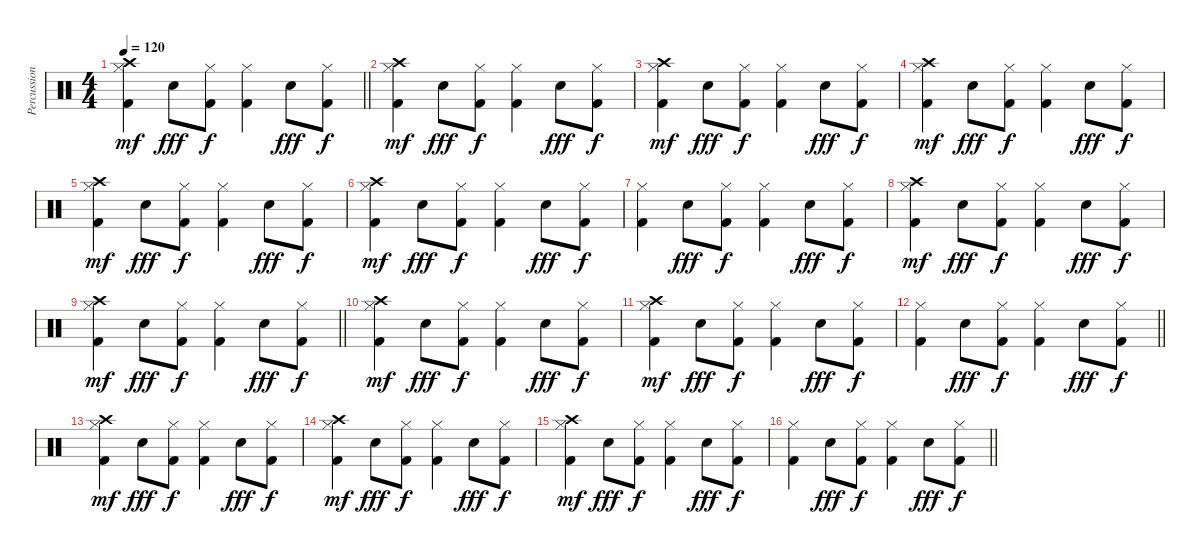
\track ("Percussion" "Percussion") {instrument percussion}
\staff {score}
\articulation defaults
\ts (4 4)
\tempo 120
\clef neutral
\barLineRight lightlight
\ks c
("Kick (hit) 2" "Hi-Hat (closed)" "Crash high (hit)").4{dy mf} "Snare (hit) 2".8{dy fff} ("Kick (hit) 2" "Hi-Hat (closed)").8{dy f} ("Kick (hit) 2" "Hi-Hat (closed)").4 "Snare (hit) 2".8{dy fff} ("Kick (hit) 2" "Hi-Hat (closed)").8{dy f} |
("Kick (hit) 2" "Hi-Hat (closed)" "Crash high (hit)").4{dy mf} "Snare (hit) 2".8{dy fff} ("Kick (hit) 2" "Hi-Hat (closed)").8{dy f} ("Kick (hit) 2" "Hi-Hat (closed)").4 "Snare (hit) 2".8{dy fff} ("Kick (hit) 2" "Hi-Hat (closed)").8{dy f} |
("Kick (hit) 2" "Hi-Hat (closed)" "Crash high (hit)").4{dy mf} "Snare (hit) 2".8{dy fff} ("Kick (hit) 2" "Hi-Hat (closed)").8{dy f} ("Kick (hit) 2" "Hi-Hat (closed)").4 "Snare (hit) 2".8{dy fff} ("Kick (hit) 2" "Hi-Hat (closed)").8{dy f} |
("Kick (hit) 2" "Hi-Hat (closed)" "Crash high (hit)").4{dy mf} "Snare (hit) 2".8{dy fff} ("Kick (hit) 2" "Hi-Hat (closed)").8{dy f} ("Kick (hit) 2" "Hi-Hat (closed)").4 "Snare (hit) 2".8{dy fff} ("Kick (hit) 2" "Hi-Hat (closed)").8{dy f} |
("Kick (hit) 2" "Hi-Hat (closed)" "Crash high (hit)").4{dy mf} "Snare (hit) 2".8{dy fff} ("Kick (hit) 2" "Hi-Hat (closed)").8{dy f} ("Kick (hit) 2" "Hi-Hat (closed)").4 "Snare (hit) 2".8{dy fff} ("Kick (hit) 2" "Hi-Hat (closed)").8{dy f} |
("Kick (hit) 2" "Hi-Hat (closed)" "Crash high (hit)").4{dy mf} "Snare (hit) 2".8{dy fff} ("Kick (hit) 2" "Hi-Hat (closed)").8{dy f} ("Kick (hit) 2" "Hi-Hat (closed)").4 "Snare (hit) 2".8{dy fff} ("Kick (hit) 2" "Hi-Hat (closed)").8{dy f} |
("Kick (hit) 2" "Hi-Hat (closed)").4 "Snare (hit) 2".8{dy fff} ("Kick (hit) 2" "Hi-Hat (closed)").8{dy f} ("Kick (hit) 2" "Hi-Hat (closed)").4 "Snare (hit) 2".8{dy fff} ("Kick (hit) 2" "Hi-Hat (closed)").8{dy f} |
("Kick (hit) 2" "Hi-Hat (closed)" "Crash high (hit)").4{dy mf} "Snare (hit) 2".8{dy fff} ("Kick (hit) 2" "Hi-Hat (closed)").8{dy f} ("Kick (hit) 2" "Hi-Hat (closed)").4 "Snare (hit) 2".8{dy fff} ("Kick (hit) 2" "Hi-Hat (closed)").8{dy f} |
\barLineRight lightlight
("Kick (hit) 2" "Hi-Hat (closed)" "Crash high (hit)").4{dy mf} "Snare (hit) 2".8{dy fff} ("Kick (hit) 2" "Hi-Hat (closed)").8{dy f} ("Kick (hit) 2" "Hi-Hat (closed)").4 "Snare (hit) 2".8{dy fff} ("Kick (hit) 2" "Hi-Hat (closed)").8{dy f} |
("Kick (hit) 2" "Hi-Hat (closed)" "Crash high (hit)").4{dy mf} "Snare (hit) 2".8{dy fff} ("Kick (hit) 2" "Hi-Hat (closed)").8{dy f} ("Kick (hit) 2" "Hi-Hat (closed)").4 "Snare (hit) 2".8{dy fff} ("Kick (hit) 2" "Hi-Hat (closed)").8{dy f} |
("Kick (hit) 2" "Hi-Hat (closed)" "Crash high (hit)").4{dy mf} "Snare (hit) 2".8{dy fff} ("Kick (hit) 2" "Hi-Hat (closed)").8{dy f} ("Kick (hit) 2" "Hi-Hat (closed)").4 "Snare (hit) 2".8{dy fff} ("Kick (hit) 2" "Hi-Hat (closed)").8{dy f} |
\barLineRight lightlight
("Kick (hit) 2" "Hi-Hat (closed)").4 "Snare (hit) 2".8{dy fff} ("Kick (hit) 2" "Hi-Hat (closed)").8{dy f} ("Kick (hit) 2" "Hi-Hat (closed)").4 "Snare (hit) 2".8{dy fff} ("Kick (hit) 2" "Hi-Hat (closed)").8{dy f} |
("Kick (hit) 2" "Hi-Hat (closed)" "Crash high (hit)").4{dy mf} "Snare (hit) 2".8{dy fff} ("Kick (hit) 2" "Hi-Hat (closed)").8{dy f} ("Kick (hit) 2" "Hi-Hat (closed)").4 "Snare (hit) 2".8{dy fff} ("Kick (hit) 2" "Hi-Hat (closed)").8{dy f} |
("Kick (hit) 2" "Hi-Hat (closed)" "Crash high (hit)").4{dy mf} "Snare (hit) 2".8{dy fff} ("Kick (hit) 2" "Hi-Hat (closed)").8{dy f} ("Kick (hit) 2" "Hi-Hat (closed)").4 "Snare (hit) 2".8{dy fff} ("Kick (hit) 2" "Hi-Hat (closed)").8{dy f} |
("Kick (hit) 2" "Hi-Hat (closed)" "Crash high (hit)").4{dy mf} "Snare (hit) 2".8{dy fff} ("Kick (hit) 2" "Hi-Hat (closed)").8{dy f} ("Kick (hit) 2" "Hi-Hat (closed)").4 "Snare (hit) 2".8{dy fff} ("Kick (hit) 2" "Hi-Hat (closed)").8{dy f} |
\barLineRight lightlight
("Kick (hit) 2" "Hi-Hat (closed)").4 "Snare (hit) 2".8{dy fff} ("Kick (hit) 2" "Hi-Hat (closed)").8{dy f} ("Kick (hit) 2" "Hi-Hat (closed)").4 "Snare (hit) 2".8{dy fff} ("Kick (hit) 2" "Hi-Hat (closed)").8{dy f}
